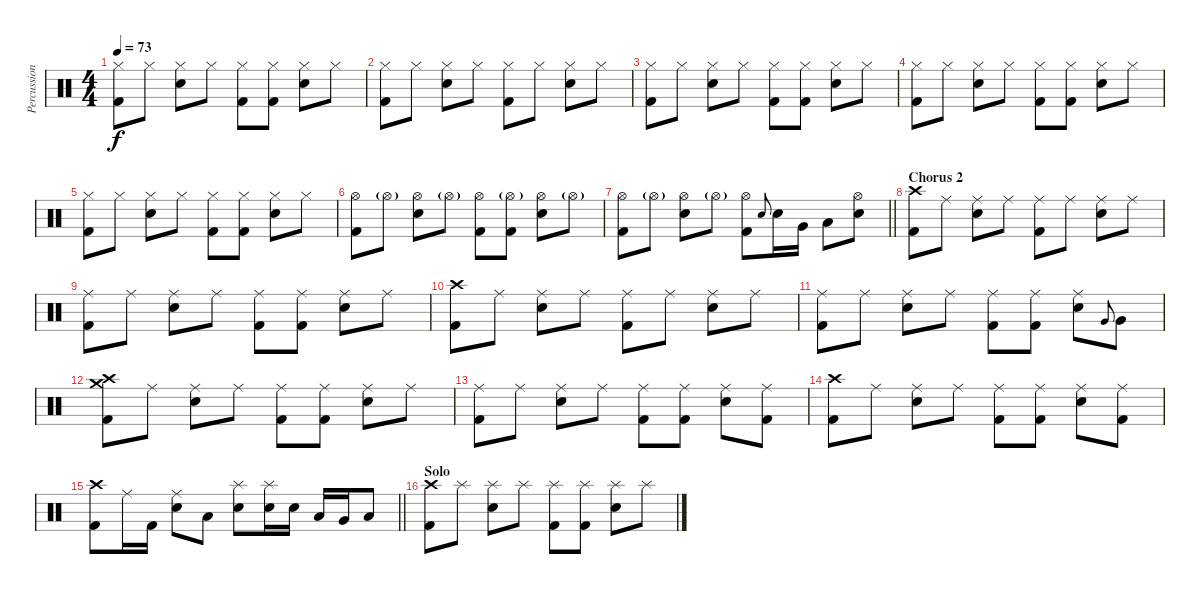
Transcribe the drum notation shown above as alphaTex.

\track ("Percussion" "Percussion") {instrument percussion}
\staff {score}
\articulation defaults
\ts (4 4)
\tempo 73
\clef neutral
\ks c
("Hi-Hat (closed)" "Kick (hit) 2").8{dy f} "Hi-Hat (closed)".8 ("Hi-Hat (closed)" "Electric Snare (hit)").8 "Hi-Hat (closed)".8 ("Hi-Hat (closed)" "Kick (hit) 2").8 ("Hi-Hat (closed)" "Kick (hit) 2").8 ("Hi-Hat (closed)" "Electric Snare (hit)").8 "Hi-Hat (closed)".8 |
("Hi-Hat (closed)" "Kick (hit) 2").8 "Hi-Hat (closed)".8 ("Hi-Hat (closed)" "Electric Snare (hit)").8 "Hi-Hat (closed)".8 ("Hi-Hat (closed)" "Kick (hit) 2").8 "Hi-Hat (closed)".8 ("Hi-Hat (closed)" "Electric Snare (hit)").8 "Hi-Hat (closed)".8 |
("Hi-Hat (closed)" "Kick (hit) 2").8 "Hi-Hat (closed)".8 ("Hi-Hat (closed)" "Electric Snare (hit)").8 "Hi-Hat (closed)".8 ("Hi-Hat (closed)" "Kick (hit) 2").8 ("Hi-Hat (closed)" "Kick (hit) 2").8 ("Hi-Hat (closed)" "Electric Snare (hit)").8 "Hi-Hat (closed)".8 |
("Hi-Hat (closed)" "Kick (hit) 2").8 "Hi-Hat (closed)".8 ("Hi-Hat (closed)" "Electric Snare (hit)").8 "Hi-Hat (closed)".8 ("Hi-Hat (closed)" "Kick (hit) 2").8 ("Hi-Hat (closed)" "Kick (hit) 2").8 ("Hi-Hat (closed)" "Electric Snare (hit)").8 "Hi-Hat (closed)".8 |
("Hi-Hat (closed)" "Kick (hit) 2").8 "Hi-Hat (closed)".8 ("Hi-Hat (closed)" "Electric Snare (hit)").8 "Hi-Hat (closed)".8 ("Hi-Hat (closed)" "Kick (hit) 2").8 ("Hi-Hat (closed)" "Kick (hit) 2").8 ("Hi-Hat (closed)" "Electric Snare (hit)").8 "Hi-Hat (closed)".8 |
("Hi-Hat (open)" "Kick (hit) 2").8 "Hi-Hat (open)"{g}.8 ("Hi-Hat (open)" "Electric Snare (hit)").8 "Hi-Hat (open)"{g}.8 ("Hi-Hat (open)" "Kick (hit) 2").8 ("Hi-Hat (open)"{g} "Kick (hit) 2").8 ("Hi-Hat (open)" "Electric Snare (hit)").8 "Hi-Hat (open)"{g}.8 |
\barLineRight lightlight
("Hi-Hat (open)" "Kick (hit) 2").8 "Hi-Hat (open)"{g}.8 ("Hi-Hat (open)" "Electric Snare (hit)").8 "Hi-Hat (open)"{g}.8 ("Hi-Hat (open)" "Kick (hit) 2").8 "Electric Snare (hit)".8{gr onbeat} "Electric Snare (hit)".16 "Very Low Tom (hit)".16 "Low Floor Tom (hit)".8 ("Hi-Hat (open)" "Electric Snare (hit)").8 |
\section ("" "Chorus 2")
("Crash high (hit)" "Kick (hit) 2").8 "Ride (middle)".8 ("Ride (middle)" "Electric Snare (hit)").8 "Ride (middle)".8 ("Ride (middle)" "Kick (hit) 2").8 "Ride (middle)".8 ("Ride (middle)" "Electric Snare (hit)").8 "Ride (middle)".8 |
("Ride (middle)" "Kick (hit) 2").8 "Ride (middle)".8 ("Ride (middle)" "Electric Snare (hit)").8 "Ride (middle)".8 ("Ride (middle)" "Kick (hit) 2").8 ("Ride (middle)" "Kick (hit) 2").8 ("Ride (middle)" "Electric Snare (hit)").8 "Ride (middle)".8 |
("Crash high (hit)" "Kick (hit) 2").8 "Ride (middle)".8 ("Ride (middle)" "Electric Snare (hit)").8 "Ride (middle)".8 ("Ride (middle)" "Kick (hit) 2").8 "Ride (middle)".8 ("Ride (middle)" "Electric Snare (hit)").8 "Ride (middle)".8 |
("Ride (middle)" "Kick (hit) 2").8 "Ride (middle)".8 ("Ride (middle)" "Electric Snare (hit)").8 "Ride (middle)".8 ("Ride (middle)" "Kick (hit) 2").8 ("Ride (middle)" "Kick (hit) 2").8 ("Ride (middle)" "Electric Snare (hit)").8 "Very Low Tom (hit)".8{gr onbeat} "Very Low Tom (hit)".8 |
("Crash medium (hit)" "Crash high (hit)" "Kick (hit) 2").8 "Ride (middle)".8 ("Ride (middle)" "Electric Snare (hit)").8 "Ride (middle)".8 ("Ride (middle)" "Kick (hit) 2").8 ("Ride (middle)" "Kick (hit) 2").8 ("Ride (middle)" "Electric Snare (hit)").8 "Ride (middle)".8 |
("Ride (middle)" "Kick (hit) 2").8 "Ride (middle)".8 ("Ride (middle)" "Electric Snare (hit)").8 "Ride (middle)".8 ("Ride (middle)" "Kick (hit) 2").8 ("Ride (middle)" "Kick (hit) 2").8 ("Ride (middle)" "Electric Snare (hit)").8 ("Ride (middle)" "Kick (hit) 2").8 |
("Crash high (hit)" "Kick (hit) 2").8 "Ride (middle)".8 ("Ride (middle)" "Electric Snare (hit)").8 "Ride (middle)".8 ("Ride (middle)" "Kick (hit) 2").8 ("Ride (middle)" "Kick (hit) 2").8 ("Ride (middle)" "Electric Snare (hit)").8 ("Ride (middle)" "Kick (hit) 2").8 |
\barLineRight lightlight
("Crash high (hit)" "Kick (hit) 2").8 "Ride (middle)".16 "Kick (hit) 2".16 ("Ride (middle)" "Electric Snare (hit)").8 "Low Tom (hit)".8 ("Splash (hit)" "Electric Snare (hit)").8 ("Splash (hit)" "Electric Snare (hit)").16 "Electric Snare (hit)".16 "Low Tom (hit)".16 "Very Low Tom (hit)".16 "Low Floor Tom (hit)".8 |
\section ("" "Solo")
("Crash high (hit)" "Kick (hit) 2").8 "Splash (hit)".8 ("Splash (hit)" "Electric Snare (hit)").8 "Splash (hit)".8 ("Splash (hit)" "Kick (hit) 2").8 ("Splash (hit)" "Kick (hit) 2").8 ("Splash (hit)" "Electric Snare (hit)").8 "Splash (hit)".8
